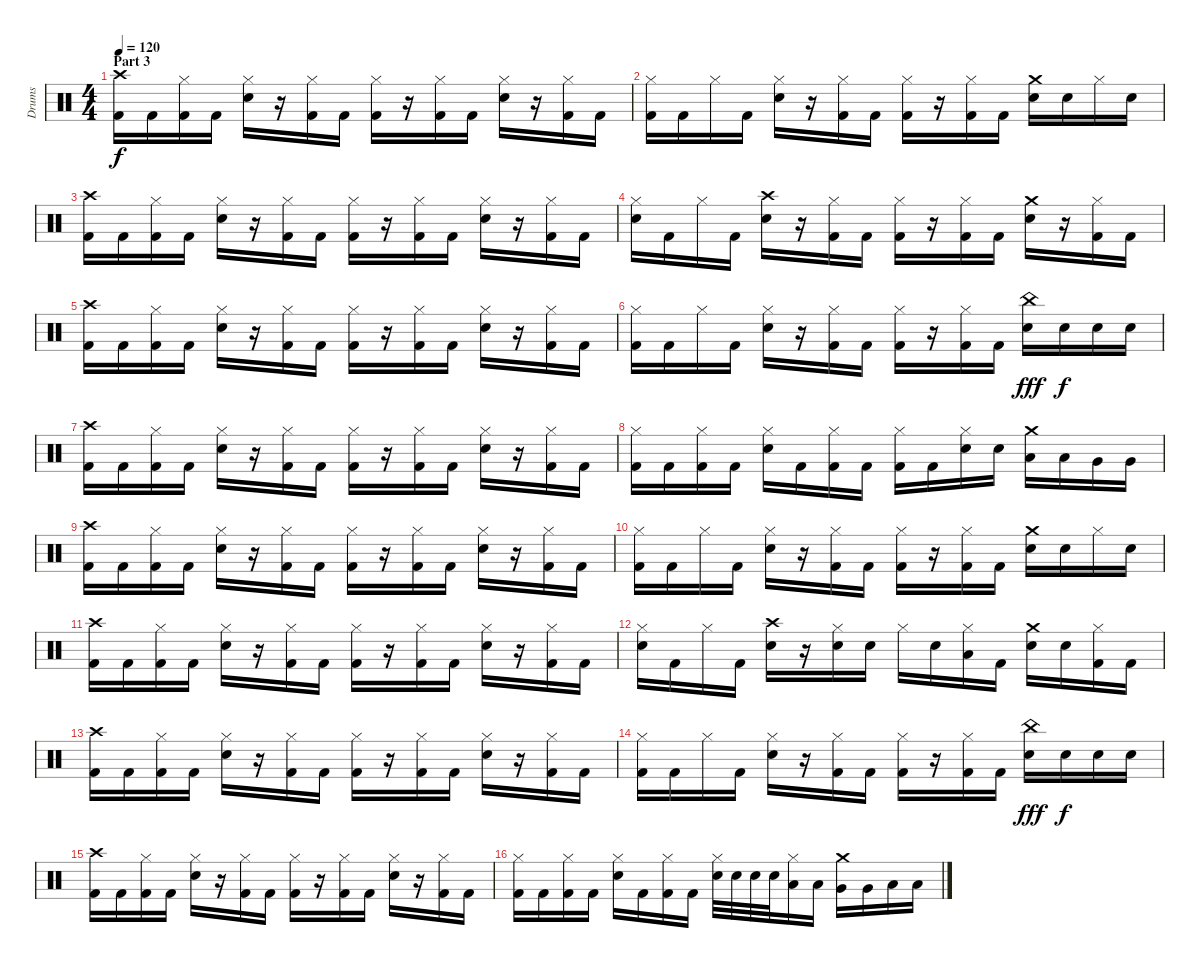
\track ("Drums" "Drums") {instrument percussion}
\staff {score}
\articulation defaults
\ts (4 4)
\section ("" "Part 3")
\tempo 120
\clef neutral
\ks c
("Crash high (hit)" "Kick (hit) 2").16{dy f} "Kick (hit) 2".16 ("Hi-Hat (closed)" "Kick (hit) 2").16 "Kick (hit) 2".16 ("Hi-Hat (closed)" "Snare (hit) 2").16 r.16 ("Hi-Hat (closed)" "Kick (hit) 2").16 "Kick (hit) 2".16 ("Hi-Hat (closed)" "Kick (hit) 2").16 r.16 ("Hi-Hat (closed)" "Kick (hit) 2").16 "Kick (hit) 2".16 ("Hi-Hat (closed)" "Snare (hit) 2").16 r.16 ("Hi-Hat (closed)" "Kick (hit) 2").16 "Kick (hit) 2".16 |
("Hi-Hat (closed)" "Kick (hit) 2").16 "Kick (hit) 2".16 "Hi-Hat (closed)".16 "Kick (hit) 2".16 ("Hi-Hat (closed)" "Snare (hit) 2").16 r.16 ("Hi-Hat (closed)" "Kick (hit) 2").16 "Kick (hit) 2".16 ("Hi-Hat (closed)" "Kick (hit) 2").16 r.16 ("Hi-Hat (closed)" "Kick (hit) 2").16 "Kick (hit) 2".16 ("Crash medium (hit)" "Snare (hit) 2").16 "Snare (hit) 2".16 "Hi-Hat (closed)".16 "Snare (hit) 2".16 |
("Crash high (hit)" "Kick (hit) 2").16 "Kick (hit) 2".16 ("Hi-Hat (closed)" "Kick (hit) 2").16 "Kick (hit) 2".16 ("Hi-Hat (closed)" "Snare (hit) 2").16 r.16 ("Hi-Hat (closed)" "Kick (hit) 2").16 "Kick (hit) 2".16 ("Hi-Hat (closed)" "Kick (hit) 2").16 r.16 ("Hi-Hat (closed)" "Kick (hit) 2").16 "Kick (hit) 2".16 ("Hi-Hat (closed)" "Snare (hit) 2").16 r.16 ("Hi-Hat (closed)" "Kick (hit) 2").16 "Kick (hit) 2".16 |
("Hi-Hat (closed)" "Snare (hit) 2").16 "Kick (hit) 2".16 "Hi-Hat (closed)".16 "Kick (hit) 2".16 ("Crash high (hit)" "Snare (hit) 2").16 r.16 ("Hi-Hat (closed)" "Kick (hit) 2").16 "Kick (hit) 2".16 ("Hi-Hat (closed)" "Kick (hit) 2").16 r.16 ("Hi-Hat (closed)" "Kick (hit) 2").16 "Kick (hit) 2".16 ("Crash medium (hit)" "Snare (hit) 2").16 r.16 ("Hi-Hat (closed)" "Kick (hit) 2").16 "Kick (hit) 2".16 |
("Crash high (hit)" "Kick (hit) 2").16 "Kick (hit) 2".16 ("Hi-Hat (closed)" "Kick (hit) 2").16 "Kick (hit) 2".16 ("Hi-Hat (closed)" "Snare (hit) 2").16 r.16 ("Hi-Hat (closed)" "Kick (hit) 2").16 "Kick (hit) 2".16 ("Hi-Hat (closed)" "Kick (hit) 2").16 r.16 ("Hi-Hat (closed)" "Kick (hit) 2").16 "Kick (hit) 2".16 ("Hi-Hat (closed)" "Snare (hit) 2").16 r.16 ("Hi-Hat (closed)" "Kick (hit) 2").16 "Kick (hit) 2".16 |
("Hi-Hat (closed)" "Kick (hit) 2").16 "Kick (hit) 2".16 "Hi-Hat (closed)".16 "Kick (hit) 2".16 ("Hi-Hat (closed)" "Snare (hit) 2").16 r.16 ("Hi-Hat (closed)" "Kick (hit) 2").16 "Kick (hit) 2".16 ("Hi-Hat (closed)" "Kick (hit) 2").16 r.16 ("Hi-Hat (closed)" "Kick (hit) 2").16 "Kick (hit) 2".16 ("China (hit)" "Snare (hit) 2").16{dy fff} "Snare (hit) 2".16{dy f} "Snare (hit) 2".16 "Snare (hit) 2".16 |
("Crash high (hit)" "Kick (hit) 2").16 "Kick (hit) 2".16 ("Hi-Hat (closed)" "Kick (hit) 2").16 "Kick (hit) 2".16 ("Hi-Hat (closed)" "Snare (hit) 2").16 r.16 ("Hi-Hat (closed)" "Kick (hit) 2").16 "Kick (hit) 2".16 ("Hi-Hat (closed)" "Kick (hit) 2").16 r.16 ("Hi-Hat (closed)" "Kick (hit) 2").16 "Kick (hit) 2".16 ("Hi-Hat (closed)" "Snare (hit) 2").16 r.16 ("Hi-Hat (closed)" "Kick (hit) 2").16 "Kick (hit) 2".16 |
("Hi-Hat (closed)" "Kick (hit) 2").16 "Kick (hit) 2".16 ("Hi-Hat (closed)" "Kick (hit) 2").16 "Kick (hit) 2".16 ("Hi-Hat (closed)" "Snare (hit) 2").16 "Kick (hit) 2".16 ("Hi-Hat (closed)" "Kick (hit) 2").16 "Kick (hit) 2".16 ("Hi-Hat (closed)" "Kick (hit) 2").16 "Kick (hit) 2".16 ("Hi-Hat (closed)" "Snare (hit) 2").16 "Snare (hit) 2".16 ("Crash medium (hit)" "Low Tom (hit)").16 "Low Tom (hit)".16 "Very Low Tom (hit)".16 "Very Low Tom (hit)".16 |
("Crash high (hit)" "Kick (hit) 2").16 "Kick (hit) 2".16 ("Hi-Hat (closed)" "Kick (hit) 2").16 "Kick (hit) 2".16 ("Hi-Hat (closed)" "Snare (hit) 2").16 r.16 ("Hi-Hat (closed)" "Kick (hit) 2").16 "Kick (hit) 2".16 ("Hi-Hat (closed)" "Kick (hit) 2").16 r.16 ("Hi-Hat (closed)" "Kick (hit) 2").16 "Kick (hit) 2".16 ("Hi-Hat (closed)" "Snare (hit) 2").16 r.16 ("Hi-Hat (closed)" "Kick (hit) 2").16 "Kick (hit) 2".16 |
("Hi-Hat (closed)" "Kick (hit) 2").16 "Kick (hit) 2".16 "Hi-Hat (closed)".16 "Kick (hit) 2".16 ("Hi-Hat (closed)" "Snare (hit) 2").16 r.16 ("Hi-Hat (closed)" "Kick (hit) 2").16 "Kick (hit) 2".16 ("Hi-Hat (closed)" "Kick (hit) 2").16 r.16 ("Hi-Hat (closed)" "Kick (hit) 2").16 "Kick (hit) 2".16 ("Crash medium (hit)" "Snare (hit) 2").16 "Snare (hit) 2".16 "Hi-Hat (closed)".16 "Snare (hit) 2".16 |
("Crash high (hit)" "Kick (hit) 2").16 "Kick (hit) 2".16 ("Hi-Hat (closed)" "Kick (hit) 2").16 "Kick (hit) 2".16 ("Hi-Hat (closed)" "Snare (hit) 2").16 r.16 ("Hi-Hat (closed)" "Kick (hit) 2").16 "Kick (hit) 2".16 ("Hi-Hat (closed)" "Kick (hit) 2").16 r.16 ("Hi-Hat (closed)" "Kick (hit) 2").16 "Kick (hit) 2".16 ("Hi-Hat (closed)" "Snare (hit) 2").16 r.16 ("Hi-Hat (closed)" "Kick (hit) 2").16 "Kick (hit) 2".16 |
("Hi-Hat (closed)" "Snare (hit) 2").16 "Kick (hit) 2".16 "Hi-Hat (closed)".16 "Kick (hit) 2".16 ("Crash high (hit)" "Snare (hit) 2").16 r.16 ("Hi-Hat (closed)" "Snare (hit) 2").16 "Snare (hit) 2".16 "Hi-Hat (closed)".16 "Snare (hit) 2".16 ("Hi-Hat (closed)" "Low Tom (hit)").16 "Kick (hit) 2".16 ("Crash medium (hit)" "Snare (hit) 2").16 "Snare (hit) 2".16 ("Hi-Hat (closed)" "Kick (hit) 2").16 "Kick (hit) 2".16 |
("Crash high (hit)" "Kick (hit) 2").16 "Kick (hit) 2".16 ("Hi-Hat (closed)" "Kick (hit) 2").16 "Kick (hit) 2".16 ("Hi-Hat (closed)" "Snare (hit) 2").16 r.16 ("Hi-Hat (closed)" "Kick (hit) 2").16 "Kick (hit) 2".16 ("Hi-Hat (closed)" "Kick (hit) 2").16 r.16 ("Hi-Hat (closed)" "Kick (hit) 2").16 "Kick (hit) 2".16 ("Hi-Hat (closed)" "Snare (hit) 2").16 r.16 ("Hi-Hat (closed)" "Kick (hit) 2").16 "Kick (hit) 2".16 |
("Hi-Hat (closed)" "Kick (hit) 2").16 "Kick (hit) 2".16 "Hi-Hat (closed)".16 "Kick (hit) 2".16 ("Hi-Hat (closed)" "Snare (hit) 2").16 r.16 ("Hi-Hat (closed)" "Kick (hit) 2").16 "Kick (hit) 2".16 ("Hi-Hat (closed)" "Kick (hit) 2").16 r.16 ("Hi-Hat (closed)" "Kick (hit) 2").16 "Kick (hit) 2".16 ("China (hit)" "Snare (hit) 2").16{dy fff} "Snare (hit) 2".16{dy f} "Snare (hit) 2".16 "Snare (hit) 2".16 |
("Crash high (hit)" "Kick (hit) 2").16 "Kick (hit) 2".16 ("Hi-Hat (closed)" "Kick (hit) 2").16 "Kick (hit) 2".16 ("Hi-Hat (closed)" "Snare (hit) 2").16 r.16 ("Hi-Hat (closed)" "Kick (hit) 2").16 "Kick (hit) 2".16 ("Hi-Hat (closed)" "Kick (hit) 2").16 r.16 ("Hi-Hat (closed)" "Kick (hit) 2").16 "Kick (hit) 2".16 ("Hi-Hat (closed)" "Snare (hit) 2").16 r.16 ("Hi-Hat (closed)" "Kick (hit) 2").16 "Kick (hit) 2".16 |
("Hi-Hat (closed)" "Kick (hit) 2").16 "Kick (hit) 2".16 ("Hi-Hat (closed)" "Kick (hit) 2").16 "Kick (hit) 2".16 ("Hi-Hat (closed)" "Snare (hit) 2").16 "Kick (hit) 2".16 ("Hi-Hat (closed)" "Kick (hit) 2").16 "Kick (hit) 2".16 ("Hi-Hat (closed)" "Snare (hit) 2").32 "Snare (hit) 2".32 "Snare (hit) 2".32 "Snare (hit) 2".32 ("Hi-Hat (closed)" "Low Tom (hit)").16 "Low Tom (hit)".16 ("Crash medium (hit)" "Very Low Tom (hit)").16 "Very Low Tom (hit)".16 "Low Floor Tom (hit)".16 "Low Floor Tom (hit)".16
